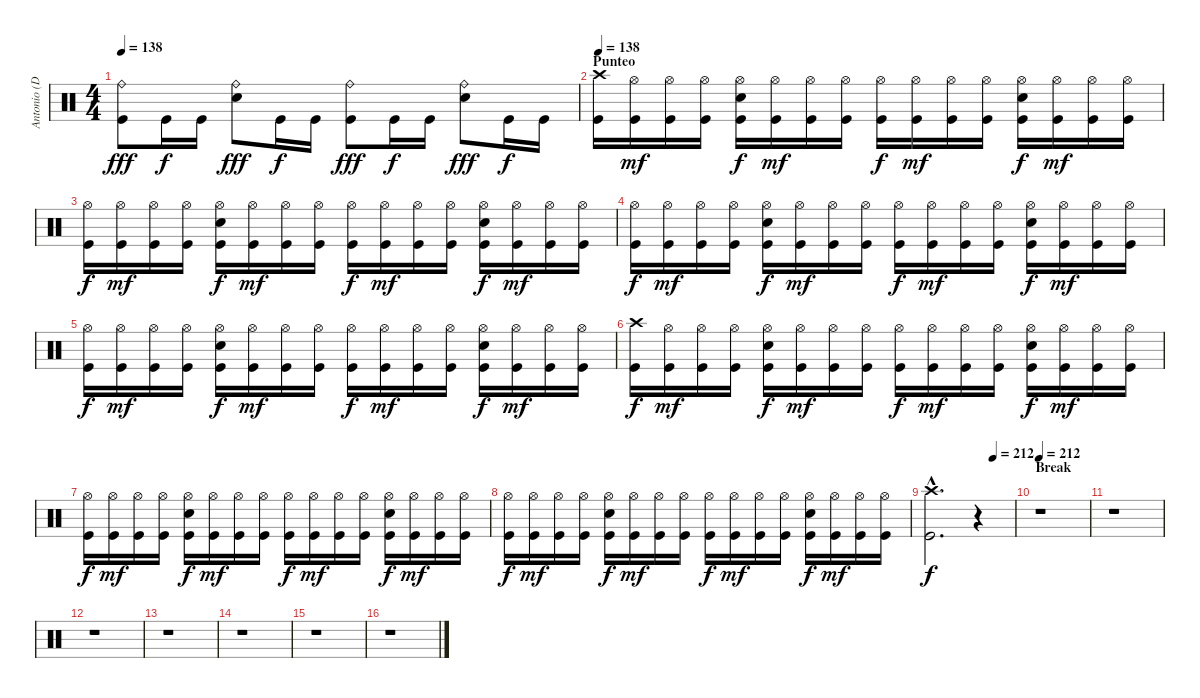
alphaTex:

\track ("Antonio (Drums)" "Antonio (D") {instrument percussion}
\staff {score}
\articulation defaults
\ts (4 4)
\tempo 138
\clef neutral
\ks c
("Ride (bell)" "Kick (hit)").8{dy fff} "Kick (hit)".16{dy f} "Kick (hit)".16 ("Ride (bell)" "Electric Snare (hit)").8{dy fff} "Kick (hit)".16{dy f} "Kick (hit)".16 ("Ride (bell)" "Kick (hit)").8{dy fff} "Kick (hit)".16{dy f} "Kick (hit)".16 ("Ride (bell)" "Electric Snare (hit)").8{dy fff} "Kick (hit)".16{dy f} "Kick (hit)".16 |
\section ("" "Punteo")
\tempo 138
("Crash high (hit)" "Kick (hit)").16 ("Hi-Hat (open)" "Kick (hit)").16{dy mf} ("Hi-Hat (open)" "Kick (hit)").16 ("Hi-Hat (open)" "Kick (hit)").16 ("Hi-Hat (open)" "Electric Snare (hit)" "Kick (hit)").16{dy f} ("Hi-Hat (open)" "Kick (hit)").16{dy mf} ("Hi-Hat (open)" "Kick (hit)").16 ("Hi-Hat (open)" "Kick (hit)").16 ("Hi-Hat (open)" "Kick (hit)").16{dy f} ("Hi-Hat (open)" "Kick (hit)").16{dy mf} ("Hi-Hat (open)" "Kick (hit)").16 ("Hi-Hat (open)" "Kick (hit)").16 ("Hi-Hat (open)" "Electric Snare (hit)" "Kick (hit)").16{dy f} ("Hi-Hat (open)" "Kick (hit)").16{dy mf} ("Hi-Hat (open)" "Kick (hit)").16 ("Hi-Hat (open)" "Kick (hit)").16 |
("Hi-Hat (open)" "Kick (hit)").16{dy f} ("Hi-Hat (open)" "Kick (hit)").16{dy mf} ("Hi-Hat (open)" "Kick (hit)").16 ("Hi-Hat (open)" "Kick (hit)").16 ("Hi-Hat (open)" "Electric Snare (hit)" "Kick (hit)").16{dy f} ("Hi-Hat (open)" "Kick (hit)").16{dy mf} ("Hi-Hat (open)" "Kick (hit)").16 ("Hi-Hat (open)" "Kick (hit)").16 ("Hi-Hat (open)" "Kick (hit)").16{dy f} ("Hi-Hat (open)" "Kick (hit)").16{dy mf} ("Hi-Hat (open)" "Kick (hit)").16 ("Hi-Hat (open)" "Kick (hit)").16 ("Hi-Hat (open)" "Electric Snare (hit)" "Kick (hit)").16{dy f} ("Hi-Hat (open)" "Kick (hit)").16{dy mf} ("Hi-Hat (open)" "Kick (hit)").16 ("Hi-Hat (open)" "Kick (hit)").16 |
("Hi-Hat (open)" "Kick (hit)").16{dy f} ("Hi-Hat (open)" "Kick (hit)").16{dy mf} ("Hi-Hat (open)" "Kick (hit)").16 ("Hi-Hat (open)" "Kick (hit)").16 ("Hi-Hat (open)" "Electric Snare (hit)" "Kick (hit)").16{dy f} ("Hi-Hat (open)" "Kick (hit)").16{dy mf} ("Hi-Hat (open)" "Kick (hit)").16 ("Hi-Hat (open)" "Kick (hit)").16 ("Hi-Hat (open)" "Kick (hit)").16{dy f} ("Hi-Hat (open)" "Kick (hit)").16{dy mf} ("Hi-Hat (open)" "Kick (hit)").16 ("Hi-Hat (open)" "Kick (hit)").16 ("Hi-Hat (open)" "Electric Snare (hit)" "Kick (hit)").16{dy f} ("Hi-Hat (open)" "Kick (hit)").16{dy mf} ("Hi-Hat (open)" "Kick (hit)").16 ("Hi-Hat (open)" "Kick (hit)").16 |
("Hi-Hat (open)" "Kick (hit)").16{dy f} ("Hi-Hat (open)" "Kick (hit)").16{dy mf} ("Hi-Hat (open)" "Kick (hit)").16 ("Hi-Hat (open)" "Kick (hit)").16 ("Hi-Hat (open)" "Electric Snare (hit)" "Kick (hit)").16{dy f} ("Hi-Hat (open)" "Kick (hit)").16{dy mf} ("Hi-Hat (open)" "Kick (hit)").16 ("Hi-Hat (open)" "Kick (hit)").16 ("Hi-Hat (open)" "Kick (hit)").16{dy f} ("Hi-Hat (open)" "Kick (hit)").16{dy mf} ("Hi-Hat (open)" "Kick (hit)").16 ("Hi-Hat (open)" "Kick (hit)").16 ("Hi-Hat (open)" "Electric Snare (hit)" "Kick (hit)").16{dy f} ("Hi-Hat (open)" "Kick (hit)").16{dy mf} ("Hi-Hat (open)" "Kick (hit)").16 ("Hi-Hat (open)" "Kick (hit)").16 |
("Crash high (hit)" "Kick (hit)").16{dy f} ("Hi-Hat (open)" "Kick (hit)").16{dy mf} ("Hi-Hat (open)" "Kick (hit)").16 ("Hi-Hat (open)" "Kick (hit)").16 ("Hi-Hat (open)" "Electric Snare (hit)" "Kick (hit)").16{dy f} ("Hi-Hat (open)" "Kick (hit)").16{dy mf} ("Hi-Hat (open)" "Kick (hit)").16 ("Hi-Hat (open)" "Kick (hit)").16 ("Hi-Hat (open)" "Kick (hit)").16{dy f} ("Hi-Hat (open)" "Kick (hit)").16{dy mf} ("Hi-Hat (open)" "Kick (hit)").16 ("Hi-Hat (open)" "Kick (hit)").16 ("Hi-Hat (open)" "Electric Snare (hit)" "Kick (hit)").16{dy f} ("Hi-Hat (open)" "Kick (hit)").16{dy mf} ("Hi-Hat (open)" "Kick (hit)").16 ("Hi-Hat (open)" "Kick (hit)").16 |
("Hi-Hat (open)" "Kick (hit)").16{dy f} ("Hi-Hat (open)" "Kick (hit)").16{dy mf} ("Hi-Hat (open)" "Kick (hit)").16 ("Hi-Hat (open)" "Kick (hit)").16 ("Hi-Hat (open)" "Electric Snare (hit)" "Kick (hit)").16{dy f} ("Hi-Hat (open)" "Kick (hit)").16{dy mf} ("Hi-Hat (open)" "Kick (hit)").16 ("Hi-Hat (open)" "Kick (hit)").16 ("Hi-Hat (open)" "Kick (hit)").16{dy f} ("Hi-Hat (open)" "Kick (hit)").16{dy mf} ("Hi-Hat (open)" "Kick (hit)").16 ("Hi-Hat (open)" "Kick (hit)").16 ("Hi-Hat (open)" "Electric Snare (hit)" "Kick (hit)").16{dy f} ("Hi-Hat (open)" "Kick (hit)").16{dy mf} ("Hi-Hat (open)" "Kick (hit)").16 ("Hi-Hat (open)" "Kick (hit)").16 |
("Hi-Hat (open)" "Kick (hit)").16{dy f} ("Hi-Hat (open)" "Kick (hit)").16{dy mf} ("Hi-Hat (open)" "Kick (hit)").16 ("Hi-Hat (open)" "Kick (hit)").16 ("Hi-Hat (open)" "Electric Snare (hit)" "Kick (hit)").16{dy f} ("Hi-Hat (open)" "Kick (hit)").16{dy mf} ("Hi-Hat (open)" "Kick (hit)").16 ("Hi-Hat (open)" "Kick (hit)").16 ("Hi-Hat (open)" "Kick (hit)").16{dy f} ("Hi-Hat (open)" "Kick (hit)").16{dy mf} ("Hi-Hat (open)" "Kick (hit)").16 ("Hi-Hat (open)" "Kick (hit)").16 ("Hi-Hat (open)" "Electric Snare (hit)" "Kick (hit)").16{dy f} ("Hi-Hat (open)" "Kick (hit)").16{dy mf} ("Hi-Hat (open)" "Kick (hit)").16 ("Hi-Hat (open)" "Kick (hit)").16 |
\tempo (212 0.75)
("Crash high (hit)"{hac} "Kick (hit)"{hac}).2{d dy f} r.4 |
\section ("" "Break")
\tempo 212
r.1 |
r.1 |
r.1 |
r.1 |
r.1 |
r.1 |
r.1
